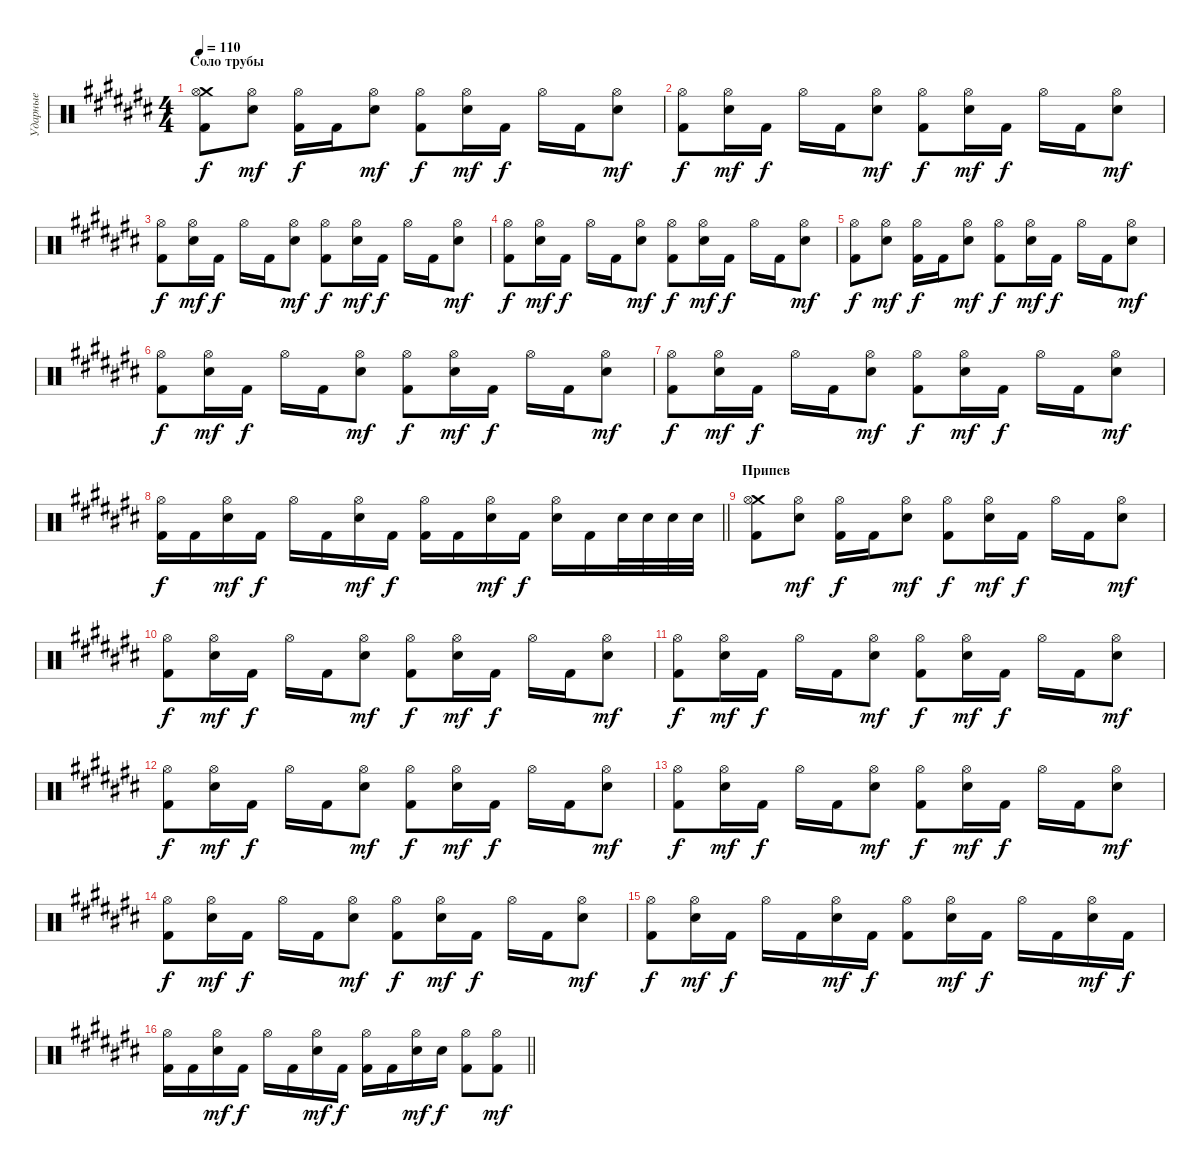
\track ("Ударные" "Ударные") {instrument percussion}
\staff {score}
\articulation defaults
\ts (4 4)
\section ("" "Соло трубы")
\tempo 110
\clef neutral
\ks a#minor
("Crash medium (hit)" "Kick (hit) 2" "Hi-Hat (open)").8{dy f} ("Electric Snare (hit)" "Hi-Hat (open)").8{dy mf} ("Kick (hit) 2" "Hi-Hat (open)").16{dy f} "Kick (hit) 2".16 ("Electric Snare (hit)" "Hi-Hat (open)").8{dy mf} ("Kick (hit) 2" "Hi-Hat (open)").8{dy f} ("Electric Snare (hit)" "Hi-Hat (open)").16{dy mf} "Kick (hit) 2".16{dy f} "Hi-Hat (open)".16 "Kick (hit) 2".16 ("Electric Snare (hit)" "Hi-Hat (open)").8{dy mf} |
("Kick (hit) 2" "Hi-Hat (open)").8{dy f} ("Electric Snare (hit)" "Hi-Hat (open)").16{dy mf} "Kick (hit) 2".16{dy f} "Hi-Hat (open)".16 "Kick (hit) 2".16 ("Electric Snare (hit)" "Hi-Hat (open)").8{dy mf} ("Kick (hit) 2" "Hi-Hat (open)").8{dy f} ("Electric Snare (hit)" "Hi-Hat (open)").16{dy mf} "Kick (hit) 2".16{dy f} "Hi-Hat (open)".16 "Kick (hit) 2".16 ("Electric Snare (hit)" "Hi-Hat (open)").8{dy mf} |
("Kick (hit) 2" "Hi-Hat (open)").8{dy f} ("Electric Snare (hit)" "Hi-Hat (open)").16{dy mf} "Kick (hit) 2".16{dy f} "Hi-Hat (open)".16 "Kick (hit) 2".16 ("Electric Snare (hit)" "Hi-Hat (open)").8{dy mf} ("Kick (hit) 2" "Hi-Hat (open)").8{dy f} ("Electric Snare (hit)" "Hi-Hat (open)").16{dy mf} "Kick (hit) 2".16{dy f} "Hi-Hat (open)".16 "Kick (hit) 2".16 ("Electric Snare (hit)" "Hi-Hat (open)").8{dy mf} |
("Kick (hit) 2" "Hi-Hat (open)").8{dy f} ("Electric Snare (hit)" "Hi-Hat (open)").16{dy mf} "Kick (hit) 2".16{dy f} "Hi-Hat (open)".16 "Kick (hit) 2".16 ("Electric Snare (hit)" "Hi-Hat (open)").8{dy mf} ("Kick (hit) 2" "Hi-Hat (open)").8{dy f} ("Electric Snare (hit)" "Hi-Hat (open)").16{dy mf} "Kick (hit) 2".16{dy f} "Hi-Hat (open)".16 "Kick (hit) 2".16 ("Electric Snare (hit)" "Hi-Hat (open)").8{dy mf} |
("Kick (hit) 2" "Hi-Hat (open)").8{dy f} ("Electric Snare (hit)" "Hi-Hat (open)").8{dy mf} ("Kick (hit) 2" "Hi-Hat (open)").16{dy f} "Kick (hit) 2".16 ("Electric Snare (hit)" "Hi-Hat (open)").8{dy mf} ("Kick (hit) 2" "Hi-Hat (open)").8{dy f} ("Electric Snare (hit)" "Hi-Hat (open)").16{dy mf} "Kick (hit) 2".16{dy f} "Hi-Hat (open)".16 "Kick (hit) 2".16 ("Electric Snare (hit)" "Hi-Hat (open)").8{dy mf} |
("Kick (hit) 2" "Hi-Hat (open)").8{dy f} ("Electric Snare (hit)" "Hi-Hat (open)").16{dy mf} "Kick (hit) 2".16{dy f} "Hi-Hat (open)".16 "Kick (hit) 2".16 ("Electric Snare (hit)" "Hi-Hat (open)").8{dy mf} ("Kick (hit) 2" "Hi-Hat (open)").8{dy f} ("Electric Snare (hit)" "Hi-Hat (open)").16{dy mf} "Kick (hit) 2".16{dy f} "Hi-Hat (open)".16 "Kick (hit) 2".16 ("Electric Snare (hit)" "Hi-Hat (open)").8{dy mf} |
("Kick (hit) 2" "Hi-Hat (open)").8{dy f} ("Electric Snare (hit)" "Hi-Hat (open)").16{dy mf} "Kick (hit) 2".16{dy f} "Hi-Hat (open)".16 "Kick (hit) 2".16 ("Electric Snare (hit)" "Hi-Hat (open)").8{dy mf} ("Kick (hit) 2" "Hi-Hat (open)").8{dy f} ("Electric Snare (hit)" "Hi-Hat (open)").16{dy mf} "Kick (hit) 2".16{dy f} "Hi-Hat (open)".16 "Kick (hit) 2".16 ("Electric Snare (hit)" "Hi-Hat (open)").8{dy mf} |
\barLineRight lightlight
("Kick (hit) 2" "Hi-Hat (open)").16{dy f} "Kick (hit) 2".16 ("Electric Snare (hit)" "Hi-Hat (open)").16{dy mf} "Kick (hit) 2".16{dy f} "Hi-Hat (open)".16 "Kick (hit) 2".16 ("Electric Snare (hit)" "Hi-Hat (open)").16{dy mf} "Kick (hit) 2".16{dy f} ("Kick (hit) 2" "Hi-Hat (open)").16 "Kick (hit) 2".16 ("Electric Snare (hit)" "Hi-Hat (open)").16{dy mf} "Kick (hit) 2".16{dy f} ("Electric Snare (hit)" "Hi-Hat (open)").16 "Kick (hit) 2".16 "Electric Snare (hit)".32 "Electric Snare (hit)".32 "Electric Snare (hit)".32 "Electric Snare (hit)".32 |
\section ("" "Припев")
("Crash medium (hit)" "Kick (hit) 2" "Hi-Hat (open)").8 ("Electric Snare (hit)" "Hi-Hat (open)").8{dy mf} ("Kick (hit) 2" "Hi-Hat (open)").16{dy f} "Kick (hit) 2".16 ("Electric Snare (hit)" "Hi-Hat (open)").8{dy mf} ("Kick (hit) 2" "Hi-Hat (open)").8{dy f} ("Electric Snare (hit)" "Hi-Hat (open)").16{dy mf} "Kick (hit) 2".16{dy f} "Hi-Hat (open)".16 "Kick (hit) 2".16 ("Electric Snare (hit)" "Hi-Hat (open)").8{dy mf} |
("Kick (hit) 2" "Hi-Hat (open)").8{dy f} ("Electric Snare (hit)" "Hi-Hat (open)").16{dy mf} "Kick (hit) 2".16{dy f} "Hi-Hat (open)".16 "Kick (hit) 2".16 ("Electric Snare (hit)" "Hi-Hat (open)").8{dy mf} ("Kick (hit) 2" "Hi-Hat (open)").8{dy f} ("Electric Snare (hit)" "Hi-Hat (open)").16{dy mf} "Kick (hit) 2".16{dy f} "Hi-Hat (open)".16 "Kick (hit) 2".16 ("Electric Snare (hit)" "Hi-Hat (open)").8{dy mf} |
("Kick (hit) 2" "Hi-Hat (open)").8{dy f} ("Electric Snare (hit)" "Hi-Hat (open)").16{dy mf} "Kick (hit) 2".16{dy f} "Hi-Hat (open)".16 "Kick (hit) 2".16 ("Electric Snare (hit)" "Hi-Hat (open)").8{dy mf} ("Kick (hit) 2" "Hi-Hat (open)").8{dy f} ("Electric Snare (hit)" "Hi-Hat (open)").16{dy mf} "Kick (hit) 2".16{dy f} "Hi-Hat (open)".16 "Kick (hit) 2".16 ("Electric Snare (hit)" "Hi-Hat (open)").8{dy mf} |
("Kick (hit) 2" "Hi-Hat (open)").8{dy f} ("Electric Snare (hit)" "Hi-Hat (open)").16{dy mf} "Kick (hit) 2".16{dy f} "Hi-Hat (open)".16 "Kick (hit) 2".16 ("Electric Snare (hit)" "Hi-Hat (open)").8{dy mf} ("Kick (hit) 2" "Hi-Hat (open)").8{dy f} ("Electric Snare (hit)" "Hi-Hat (open)").16{dy mf} "Kick (hit) 2".16{dy f} "Hi-Hat (open)".16 "Kick (hit) 2".16 ("Electric Snare (hit)" "Hi-Hat (open)").8{dy mf} |
("Kick (hit) 2" "Hi-Hat (open)").8{dy f} ("Electric Snare (hit)" "Hi-Hat (open)").16{dy mf} "Kick (hit) 2".16{dy f} "Hi-Hat (open)".16 "Kick (hit) 2".16 ("Electric Snare (hit)" "Hi-Hat (open)").8{dy mf} ("Kick (hit) 2" "Hi-Hat (open)").8{dy f} ("Electric Snare (hit)" "Hi-Hat (open)").16{dy mf} "Kick (hit) 2".16{dy f} "Hi-Hat (open)".16 "Kick (hit) 2".16 ("Electric Snare (hit)" "Hi-Hat (open)").8{dy mf} |
("Kick (hit) 2" "Hi-Hat (open)").8{dy f} ("Electric Snare (hit)" "Hi-Hat (open)").16{dy mf} "Kick (hit) 2".16{dy f} "Hi-Hat (open)".16 "Kick (hit) 2".16 ("Electric Snare (hit)" "Hi-Hat (open)").8{dy mf} ("Kick (hit) 2" "Hi-Hat (open)").8{dy f} ("Electric Snare (hit)" "Hi-Hat (open)").16{dy mf} "Kick (hit) 2".16{dy f} "Hi-Hat (open)".16 "Kick (hit) 2".16 ("Electric Snare (hit)" "Hi-Hat (open)").8{dy mf} |
("Kick (hit) 2" "Hi-Hat (open)").8{dy f} ("Electric Snare (hit)" "Hi-Hat (open)").16{dy mf} "Kick (hit) 2".16{dy f} "Hi-Hat (open)".16 "Kick (hit) 2".16 ("Electric Snare (hit)" "Hi-Hat (open)").16{dy mf} "Kick (hit) 2".16{dy f} ("Kick (hit) 2" "Hi-Hat (open)").8 ("Electric Snare (hit)" "Hi-Hat (open)").16{dy mf} "Kick (hit) 2".16{dy f} "Hi-Hat (open)".16 "Kick (hit) 2".16 ("Electric Snare (hit)" "Hi-Hat (open)").16{dy mf} "Kick (hit) 2".16{dy f} |
\barLineRight lightlight
("Kick (hit) 2" "Hi-Hat (open)").16 "Kick (hit) 2".16 ("Electric Snare (hit)" "Hi-Hat (open)").16{dy mf} "Kick (hit) 2".16{dy f} "Hi-Hat (open)".16 "Kick (hit) 2".16 ("Electric Snare (hit)" "Hi-Hat (open)").16{dy mf} "Kick (hit) 2".16{dy f} ("Kick (hit) 2" "Hi-Hat (open)").16 "Kick (hit) 2".16 ("Electric Snare (hit)" "Hi-Hat (open)").16{dy mf} "Electric Snare (hit)".16{dy f} ("Kick (hit) 2" "Hi-Hat (open)").8 ("Kick (hit) 2" "Hi-Hat (open)").8{dy mf}
